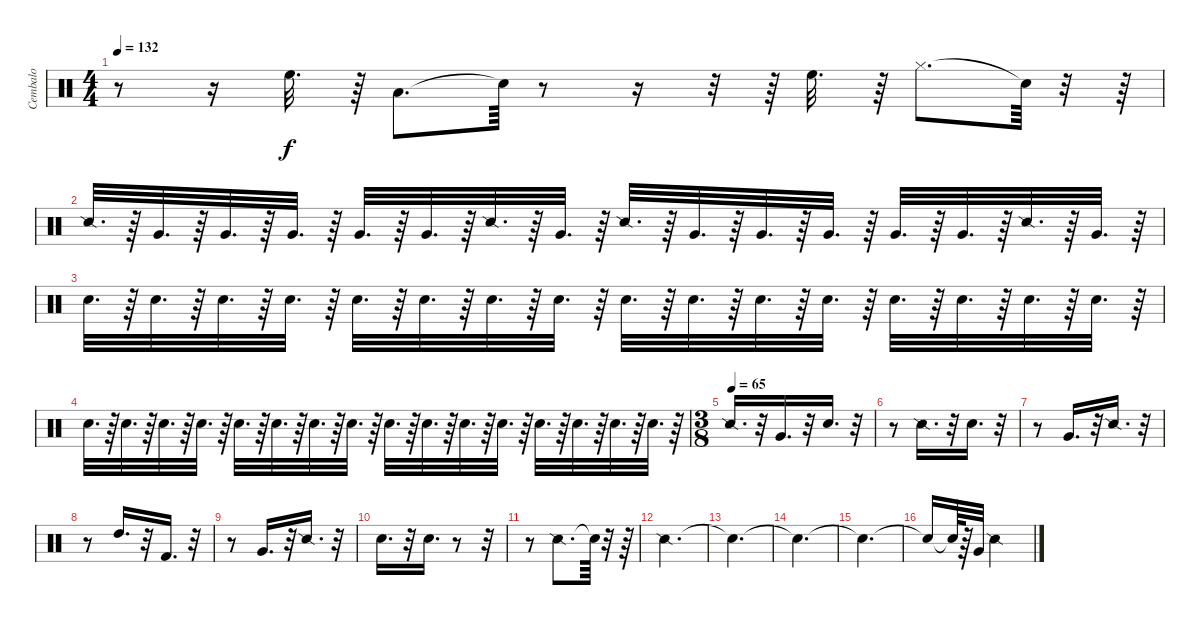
\track ("Cembalo" "Cembalo") {instrument percussion}
\staff {score}
\articulation defaults
\ts (4 4)
\tempo 132
\clef neutral
\ks c
r.8{dy f} r.16 "High Floor Tom (hit)".32{d} r.64 "Low Floor Tom (hit)".8{d} "Snare (hit)"{t}.64 r.8 r.16 r.32 r.64 "High Floor Tom (hit)".32{d} r.64 "Hi-Hat (closed)".8{d} "Snare (hit)"{t}.64 r.32 r.64 |
"Snare (side stick) 2".32{d} r.64 "Very Low Tom (hit)".32{d} r.64 "Very Low Tom (hit)".32{d} r.64 "Very Low Tom (hit)".32{d} r.64 "Very Low Tom (hit)".32{d} r.64 "Very Low Tom (hit)".32{d} r.64 "Snare (side stick) 2".32{d} r.64 "Very Low Tom (hit)".32{d} r.64 "Snare (side stick) 2".32{d} r.64 "Very Low Tom (hit)".32{d} r.64 "Very Low Tom (hit)".32{d} r.64 "Very Low Tom (hit)".32{d} r.64 "Very Low Tom (hit)".32{d} r.64 "Very Low Tom (hit)".32{d} r.64 "Snare (side stick) 2".32{d} r.64 "Very Low Tom (hit)".32{d} r.64 |
"Snare (hit)".32{d} r.64 "Snare (hit) 2".32{d} r.64 "Snare (hit) 2".32{d} r.64 "Snare (hit) 2".32{d} r.64 "Snare (hit) 2".32{d} r.64 "Snare (hit) 2".32{d} r.64 "Snare (hit)".32{d} r.64 "Snare (hit) 2".32{d} r.64 "Snare (hit)".32{d} r.64 "Snare (hit) 2".32{d} r.64 "Snare (hit) 2".32{d} r.64 "Snare (hit) 2".32{d} r.64 "Snare (hit) 2".32{d} r.64 "Snare (hit) 2".32{d} r.64 "Snare (hit)".32{d} r.64 "Snare (hit) 2".32{d} r.64 |
"Snare (hit)".32{d} r.64 "Snare (hit) 2".32{d} r.64 "Snare (hit) 2".32{d} r.64 "Snare (hit) 2".32{d} r.64 "Snare (hit) 2".32{d} r.64 "Snare (hit) 2".32{d} r.64 "Snare (hit)".32{d} r.64 "Snare (hit) 2".32{d} r.64 "Snare (hit)".32{d} r.64 "Snare (hit) 2".32{d} r.64 "Snare (hit) 2".32{d} r.64 "Snare (hit) 2".32{d} r.64 "Snare (hit) 2".32{d} r.64 "Snare (hit) 2".32{d} r.64 "Snare (hit)".32{d} r.64 "Snare (hit) 2".32{d} r.64 |
\ts (3 8)
\tempo (65)
"Snare (side stick) 2".16{d} r.32 "Very Low Tom (hit)".16{d} r.32 "Snare (hit) 2".16{d} r.32 |
r.8 "Snare (side stick) 2".16{d} r.32 "Snare (hit)".16{d} r.32 |
r.8 "Very Low Tom (hit)".16{d} r.32 "Snare (side stick) 2".16{d} r.32 |
r.8 "High Tom (hit)".16{d} r.32 "Kick (hit) 2".16{d} r.32 |
r.8 "Very Low Tom (hit)".16{d} r.32 "Snare (side stick) 2".16{d} r.32 |
"Snare (hit) 2".16{d} r.32 "Snare (hit)".16{d} r.8 r.32 |
r.8 "Snare (side stick) 2".8{d} "Snare (hit)"{t}.64 r.32 r.64 |
"Snare (side stick) 2".4{d} |
"Snare (hit)"{t}.4{d} |
"Snare (hit)"{t}.4{d} |
"Snare (hit)"{t}.4{d} |
"Snare (hit)"{t}.16 "Snare (hit)"{t}.64 r.64 "Very Low Tom (hit)".32 "Snare (side stick) 2".4
